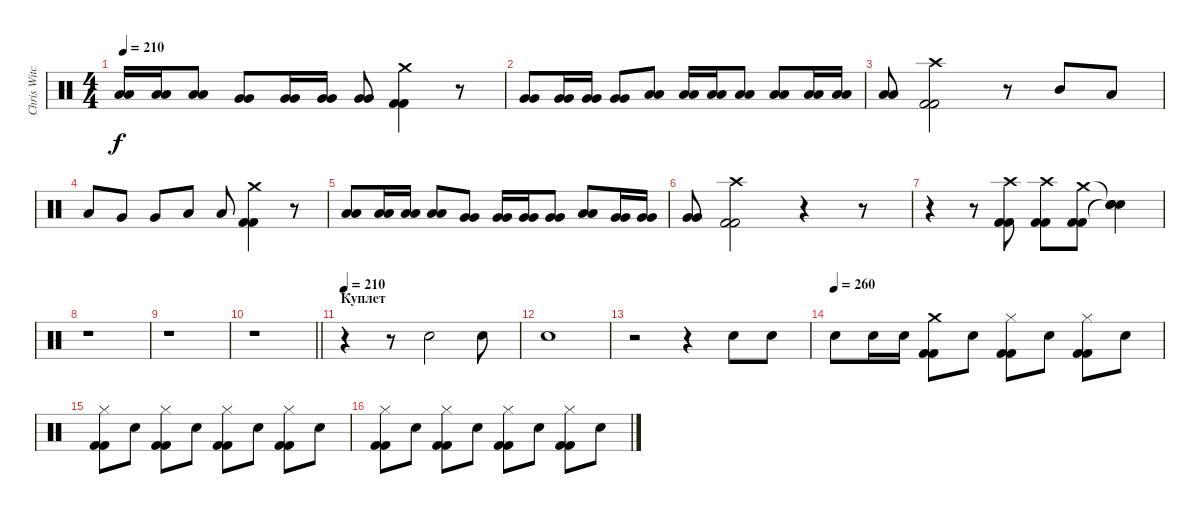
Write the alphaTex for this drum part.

\track ("Chris Witchhunter" "Chris Witc") {instrument percussion}
\staff {score}
\articulation defaults
\ts (4 4)
\tempo 210
\clef neutral
\ks c
("Low Tom (hit)" "Low Tom (hit)").16{dy f} ("Low Tom (hit)" "Low Tom (hit)").16 ("Low Tom (hit)" "Low Tom (hit)").8 ("Very Low Tom (hit)" "Very Low Tom (hit)").8 ("Very Low Tom (hit)" "Very Low Tom (hit)").16 ("Very Low Tom (hit)" "Very Low Tom (hit)").16 ("Very Low Tom (hit)" "Very Low Tom (hit)").8 ("Crash medium (hit)" "Kick (hit) 2" "Kick (hit) 2").4 r.8 |
("Very Low Tom (hit)" "Very Low Tom (hit)").8 ("Very Low Tom (hit)" "Very Low Tom (hit)").16 ("Very Low Tom (hit)" "Very Low Tom (hit)").16 ("Very Low Tom (hit)" "Very Low Tom (hit)").8 ("Low Floor Tom (hit)" "Low Floor Tom (hit)").8 ("Low Floor Tom (hit)" "Low Floor Tom (hit)").16 ("Low Floor Tom (hit)" "Low Floor Tom (hit)").16 ("Low Floor Tom (hit)" "Low Floor Tom (hit)").8 ("Low Floor Tom (hit)" "Low Floor Tom (hit)").8 ("Low Floor Tom (hit)" "Low Floor Tom (hit)").16 ("Low Floor Tom (hit)" "Low Floor Tom (hit)").16 |
("Low Floor Tom (hit)" "Low Floor Tom (hit)").8 ("Crash high (hit)" "Kick (hit) 2" "Kick (hit) 2").2 r.8 "Mid Tom (hit)".8 "Low Tom (hit)".8 |
"Low Tom (hit)".8 "Very Low Tom (hit)".8 "Very Low Tom (hit)".8 "Low Floor Tom (hit)".8 "Low Floor Tom (hit)".8 ("Crash medium (hit)" "Kick (hit) 2" "Kick (hit) 2").4 r.8 |
("Low Floor Tom (hit)" "Low Floor Tom (hit)").8 ("Low Floor Tom (hit)" "Low Floor Tom (hit)").16 ("Low Floor Tom (hit)" "Low Floor Tom (hit)").16 ("Low Floor Tom (hit)" "Low Floor Tom (hit)").8 ("Very Low Tom (hit)" "Very Low Tom (hit)").8 ("Very Low Tom (hit)" "Very Low Tom (hit)").16 ("Very Low Tom (hit)" "Very Low Tom (hit)").16 ("Very Low Tom (hit)" "Very Low Tom (hit)").8 ("Low Tom (hit)" "Low Tom (hit)").8 ("Very Low Tom (hit)" "Very Low Tom (hit)").16 ("Very Low Tom (hit)" "Very Low Tom (hit)").16 |
("Very Low Tom (hit)" "Very Low Tom (hit)").8 ("Crash high (hit)" "Kick (hit) 2" "Kick (hit) 2").2 r.4 r.8 |
r.4 r.8 ("Crash high (hit)" "Kick (hit) 2" "Kick (hit) 2").8 ("Crash high (hit)" "Kick (hit) 2" "Kick (hit) 2").8 ("Crash medium (hit)" "Kick (hit) 2" "Kick (hit) 2").8 ("Snare (hit)"{t} "Snare (hit)"{t} "Snare (hit)"{t}).4 |
r.1 |
r.1 |
\barLineRight lightlight
r.1 |
\section ("" "Куплет")
\tempo 210
r.4 r.8 "Electric Snare (hit)".2 "Electric Snare (hit)".8 |
"Electric Snare (hit)".1 |
r.2 r.4 "Electric Snare (hit)".8 "Electric Snare (hit)".8 |
\tempo (260)
"Electric Snare (hit)".8 "Electric Snare (hit)".16 "Electric Snare (hit)".16 ("Crash medium (hit)" "Kick (hit) 2" "Kick (hit) 2").8 "Electric Snare (hit)".8 ("Hi-Hat (closed)" "Kick (hit) 2" "Kick (hit) 2").8 "Electric Snare (hit)".8 ("Hi-Hat (closed)" "Kick (hit) 2" "Kick (hit) 2").8 "Electric Snare (hit)".8 |
("Hi-Hat (closed)" "Kick (hit) 2" "Kick (hit) 2").8 "Electric Snare (hit)".8 ("Hi-Hat (closed)" "Kick (hit) 2" "Kick (hit) 2").8 "Electric Snare (hit)".8 ("Hi-Hat (closed)" "Kick (hit) 2" "Kick (hit) 2").8 "Electric Snare (hit)".8 ("Hi-Hat (closed)" "Kick (hit) 2" "Kick (hit) 2").8 "Electric Snare (hit)".8 |
("Hi-Hat (closed)" "Kick (hit) 2" "Kick (hit) 2").8 "Electric Snare (hit)".8 ("Hi-Hat (closed)" "Kick (hit) 2" "Kick (hit) 2").8 "Electric Snare (hit)".8 ("Hi-Hat (closed)" "Kick (hit) 2" "Kick (hit) 2").8 "Electric Snare (hit)".8 ("Hi-Hat (closed)" "Kick (hit) 2" "Kick (hit) 2").8 "Electric Snare (hit)".8
